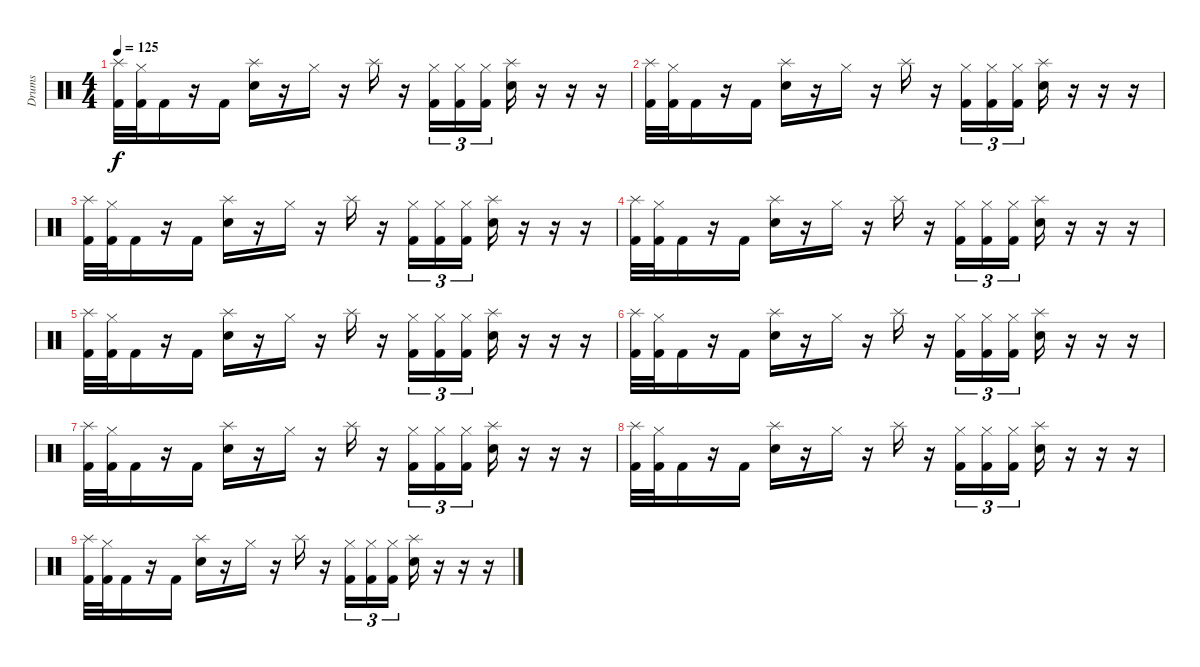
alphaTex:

\track ("Drums" "Drums") {instrument percussion}
\staff {score}
\articulation defaults
\ts (4 4)
\tempo 125
\clef neutral
\ks c
("Splash (hit)" "Kick (hit) 2").32{dy f} ("Hi-Hat (closed)" "Kick (hit) 2").32 "Kick (hit) 2".16 r.16 "Kick (hit) 2".16 ("Splash (hit)" "Snare (hit) 2").16 r.16 "Hi-Hat (closed)".16 r.16 "Splash (hit)".16 r.16 ("Hi-Hat (closed)" "Kick (hit) 2").16{tu (3 2)} ("Hi-Hat (closed)" "Kick (hit) 2").16{tu (3 2)} ("Hi-Hat (closed)" "Kick (hit) 2").16{tu (3 2)} ("Splash (hit)" "Snare (hit) 2").16 r.16 r.16 r.16 |
("Splash (hit)" "Kick (hit) 2").32 ("Hi-Hat (closed)" "Kick (hit) 2").32 "Kick (hit) 2".16 r.16 "Kick (hit) 2".16 ("Splash (hit)" "Snare (hit) 2").16 r.16 "Hi-Hat (closed)".16 r.16 "Splash (hit)".16 r.16 ("Hi-Hat (closed)" "Kick (hit) 2").16{tu (3 2)} ("Hi-Hat (closed)" "Kick (hit) 2").16{tu (3 2)} ("Hi-Hat (closed)" "Kick (hit) 2").16{tu (3 2)} ("Splash (hit)" "Snare (hit) 2").16 r.16 r.16 r.16 |
("Splash (hit)" "Kick (hit) 2").32 ("Hi-Hat (closed)" "Kick (hit) 2").32 "Kick (hit) 2".16 r.16 "Kick (hit) 2".16 ("Splash (hit)" "Snare (hit) 2").16 r.16 "Hi-Hat (closed)".16 r.16 "Splash (hit)".16 r.16 ("Hi-Hat (closed)" "Kick (hit) 2").16{tu (3 2)} ("Hi-Hat (closed)" "Kick (hit) 2").16{tu (3 2)} ("Hi-Hat (closed)" "Kick (hit) 2").16{tu (3 2)} ("Splash (hit)" "Snare (hit) 2").16 r.16 r.16 r.16 |
("Splash (hit)" "Kick (hit) 2").32 ("Hi-Hat (closed)" "Kick (hit) 2").32 "Kick (hit) 2".16 r.16 "Kick (hit) 2".16 ("Splash (hit)" "Snare (hit) 2").16 r.16 "Hi-Hat (closed)".16 r.16 "Splash (hit)".16 r.16 ("Hi-Hat (closed)" "Kick (hit) 2").16{tu (3 2)} ("Hi-Hat (closed)" "Kick (hit) 2").16{tu (3 2)} ("Hi-Hat (closed)" "Kick (hit) 2").16{tu (3 2)} ("Splash (hit)" "Snare (hit) 2").16 r.16 r.16 r.16 |
("Splash (hit)" "Kick (hit) 2").32 ("Hi-Hat (closed)" "Kick (hit) 2").32 "Kick (hit) 2".16 r.16 "Kick (hit) 2".16 ("Splash (hit)" "Snare (hit) 2").16 r.16 "Hi-Hat (closed)".16 r.16 "Splash (hit)".16 r.16 ("Hi-Hat (closed)" "Kick (hit) 2").16{tu (3 2)} ("Hi-Hat (closed)" "Kick (hit) 2").16{tu (3 2)} ("Hi-Hat (closed)" "Kick (hit) 2").16{tu (3 2)} ("Splash (hit)" "Snare (hit) 2").16 r.16 r.16 r.16 |
("Splash (hit)" "Kick (hit) 2").32 ("Hi-Hat (closed)" "Kick (hit) 2").32 "Kick (hit) 2".16 r.16 "Kick (hit) 2".16 ("Splash (hit)" "Snare (hit) 2").16 r.16 "Hi-Hat (closed)".16 r.16 "Splash (hit)".16 r.16 ("Hi-Hat (closed)" "Kick (hit) 2").16{tu (3 2)} ("Hi-Hat (closed)" "Kick (hit) 2").16{tu (3 2)} ("Hi-Hat (closed)" "Kick (hit) 2").16{tu (3 2)} ("Splash (hit)" "Snare (hit) 2").16 r.16 r.16 r.16 |
("Splash (hit)" "Kick (hit) 2").32 ("Hi-Hat (closed)" "Kick (hit) 2").32 "Kick (hit) 2".16 r.16 "Kick (hit) 2".16 ("Splash (hit)" "Snare (hit) 2").16 r.16 "Hi-Hat (closed)".16 r.16 "Splash (hit)".16 r.16 ("Hi-Hat (closed)" "Kick (hit) 2").16{tu (3 2)} ("Hi-Hat (closed)" "Kick (hit) 2").16{tu (3 2)} ("Hi-Hat (closed)" "Kick (hit) 2").16{tu (3 2)} ("Splash (hit)" "Snare (hit) 2").16 r.16 r.16 r.16 |
("Splash (hit)" "Kick (hit) 2").32 ("Hi-Hat (closed)" "Kick (hit) 2").32 "Kick (hit) 2".16 r.16 "Kick (hit) 2".16 ("Splash (hit)" "Snare (hit) 2").16 r.16 "Hi-Hat (closed)".16 r.16 "Splash (hit)".16 r.16 ("Hi-Hat (closed)" "Kick (hit) 2").16{tu (3 2)} ("Hi-Hat (closed)" "Kick (hit) 2").16{tu (3 2)} ("Hi-Hat (closed)" "Kick (hit) 2").16{tu (3 2)} ("Splash (hit)" "Snare (hit) 2").16 r.16 r.16 r.16 |
("Splash (hit)" "Kick (hit) 2").32 ("Hi-Hat (closed)" "Kick (hit) 2").32 "Kick (hit) 2".16 r.16 "Kick (hit) 2".16 ("Splash (hit)" "Snare (hit) 2").16 r.16 "Hi-Hat (closed)".16 r.16 "Splash (hit)".16 r.16 ("Hi-Hat (closed)" "Kick (hit) 2").16{tu (3 2)} ("Hi-Hat (closed)" "Kick (hit) 2").16{tu (3 2)} ("Hi-Hat (closed)" "Kick (hit) 2").16{tu (3 2)} ("Splash (hit)" "Snare (hit) 2").16 r.16 r.16 r.16
